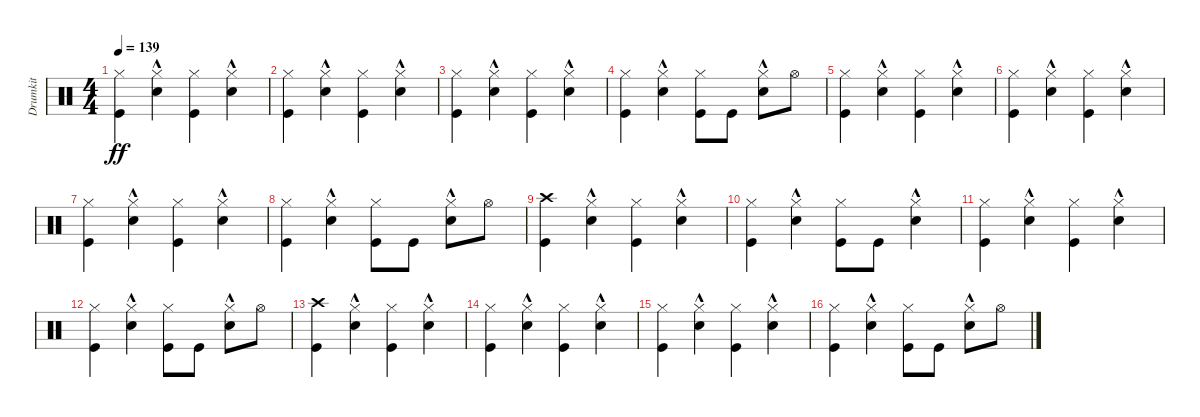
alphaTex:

\track ("Drumkit" "Drumkit") {instrument percussion}
\staff {score}
\articulation defaults
\ts (4 4)
\tempo 139
\clef neutral
\ks c
("Kick (hit)" "Hi-Hat (closed)").4{dy ff} ("Snare (hit) 2"{hac} "Hi-Hat (closed)").4 ("Kick (hit)" "Hi-Hat (closed)").4 ("Snare (hit) 2"{hac} "Hi-Hat (closed)").4 |
("Hi-Hat (closed)" "Kick (hit)").4 ("Hi-Hat (closed)" "Snare (hit) 2"{hac}).4 ("Hi-Hat (closed)" "Kick (hit)").4 ("Hi-Hat (closed)" "Snare (hit) 2"{hac}).4 |
("Hi-Hat (closed)" "Kick (hit)").4 ("Hi-Hat (closed)" "Snare (hit) 2"{hac}).4 ("Hi-Hat (closed)" "Kick (hit)").4 ("Hi-Hat (closed)" "Snare (hit) 2"{hac}).4 |
("Hi-Hat (closed)" "Kick (hit)").4 ("Snare (hit) 2"{hac} "Hi-Hat (closed)").4 ("Hi-Hat (closed)" "Kick (hit)").8 "Kick (hit)".8 ("Snare (hit) 2"{hac} "Hi-Hat (closed)").8 "Hi-Hat (open)".8 |
("Kick (hit)" "Hi-Hat (closed)").4 ("Snare (hit) 2"{hac} "Hi-Hat (closed)").4 ("Kick (hit)" "Hi-Hat (closed)").4 ("Snare (hit) 2"{hac} "Hi-Hat (closed)").4 |
("Hi-Hat (closed)" "Kick (hit)").4 ("Hi-Hat (closed)" "Snare (hit) 2"{hac}).4 ("Hi-Hat (closed)" "Kick (hit)").4 ("Hi-Hat (closed)" "Snare (hit) 2"{hac}).4 |
("Hi-Hat (closed)" "Kick (hit)").4 ("Hi-Hat (closed)" "Snare (hit) 2"{hac}).4 ("Hi-Hat (closed)" "Kick (hit)").4 ("Hi-Hat (closed)" "Snare (hit) 2"{hac}).4 |
("Hi-Hat (closed)" "Kick (hit)").4 ("Snare (hit) 2"{hac} "Hi-Hat (closed)").4 ("Hi-Hat (closed)" "Kick (hit)").8 "Kick (hit)".8 ("Snare (hit) 2"{hac} "Hi-Hat (closed)").8 "Hi-Hat (open)".8 |
("Kick (hit)" "Crash high (hit)").4 ("Snare (hit) 2"{hac} "Hi-Hat (closed)").4 ("Kick (hit)" "Hi-Hat (closed)").4 ("Snare (hit) 2"{hac} "Hi-Hat (closed)").4 |
("Hi-Hat (closed)" "Kick (hit)").4 ("Hi-Hat (closed)" "Snare (hit) 2"{hac}).4 ("Hi-Hat (closed)" "Kick (hit)").8 "Kick (hit)".8 ("Hi-Hat (closed)" "Snare (hit) 2"{hac}).4 |
("Hi-Hat (closed)" "Kick (hit)").4 ("Hi-Hat (closed)" "Snare (hit) 2"{hac}).4 ("Hi-Hat (closed)" "Kick (hit)").4 ("Hi-Hat (closed)" "Snare (hit) 2"{hac}).4 |
("Hi-Hat (closed)" "Kick (hit)").4 ("Snare (hit) 2"{hac} "Hi-Hat (closed)").4 ("Hi-Hat (closed)" "Kick (hit)").8 "Kick (hit)".8 ("Snare (hit) 2"{hac} "Hi-Hat (closed)").8 "Hi-Hat (open)".8 |
("Kick (hit)" "Crash high (hit)").4 ("Snare (hit) 2"{hac} "Hi-Hat (closed)").4 ("Kick (hit)" "Hi-Hat (closed)").4 ("Snare (hit) 2"{hac} "Hi-Hat (closed)").4 |
("Hi-Hat (closed)" "Kick (hit)").4 ("Hi-Hat (closed)" "Snare (hit) 2"{hac}).4 ("Hi-Hat (closed)" "Kick (hit)").4 ("Hi-Hat (closed)" "Snare (hit) 2"{hac}).4 |
("Hi-Hat (closed)" "Kick (hit)").4 ("Hi-Hat (closed)" "Snare (hit) 2"{hac}).4 ("Hi-Hat (closed)" "Kick (hit)").4 ("Hi-Hat (closed)" "Snare (hit) 2"{hac}).4 |
("Hi-Hat (closed)" "Kick (hit)").4 ("Snare (hit) 2"{hac} "Hi-Hat (closed)").4 ("Hi-Hat (closed)" "Kick (hit)").8 "Kick (hit)".8 ("Snare (hit) 2"{hac} "Hi-Hat (closed)").8 "Hi-Hat (open)".8
